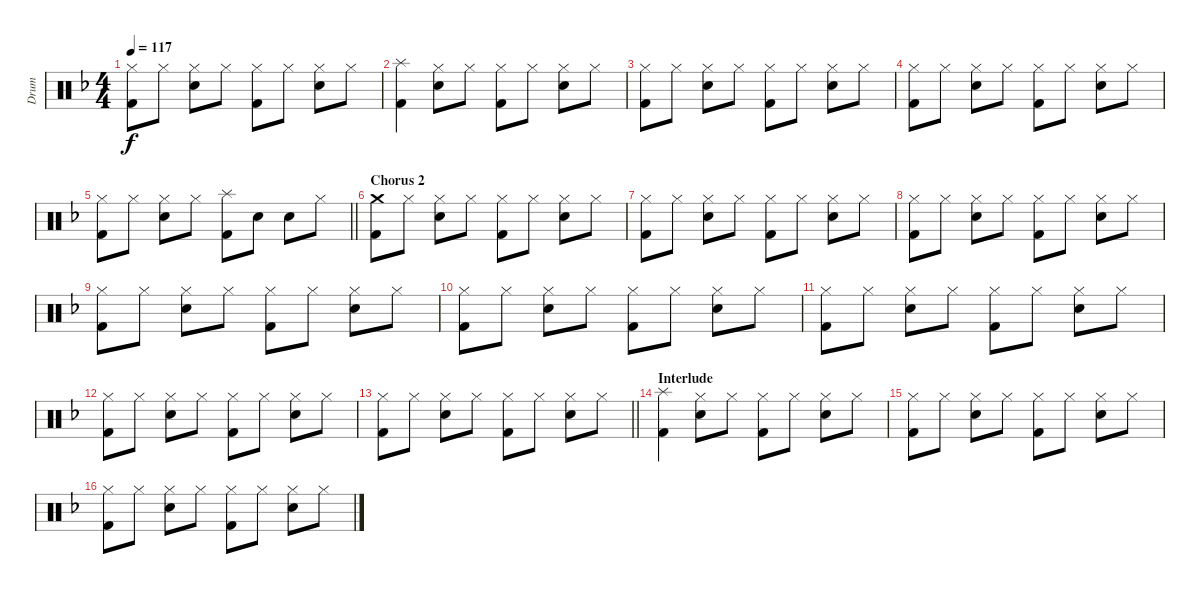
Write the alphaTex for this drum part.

\track ("Drum" "Drum") {instrument percussion}
\staff {score}
\articulation defaults
\ts (4 4)
\tempo 117
\clef neutral
\ks f
("Kick (hit) 2" "Hi-Hat (closed)").8{dy f} "Hi-Hat (closed)".8 ("Snare (hit) 2" "Hi-Hat (closed)").8 "Hi-Hat (closed)".8 ("Kick (hit) 2" "Hi-Hat (closed)").8 "Hi-Hat (closed)".8 ("Snare (hit) 2" "Hi-Hat (closed)").8 "Hi-Hat (closed)".8 |
("Kick (hit) 2" "Splash (hit)").4 ("Snare (hit) 2" "Hi-Hat (closed)").8 "Hi-Hat (closed)".8 ("Kick (hit) 2" "Hi-Hat (closed)").8 "Hi-Hat (closed)".8 ("Snare (hit) 2" "Hi-Hat (closed)").8 "Hi-Hat (closed)".8 |
("Kick (hit) 2" "Hi-Hat (closed)").8 "Hi-Hat (closed)".8 ("Snare (hit) 2" "Hi-Hat (closed)").8 "Hi-Hat (closed)".8 ("Kick (hit) 2" "Hi-Hat (closed)").8 "Hi-Hat (closed)".8 ("Snare (hit) 2" "Hi-Hat (closed)").8 "Hi-Hat (closed)".8 |
("Kick (hit) 2" "Hi-Hat (closed)").8 "Hi-Hat (closed)".8 ("Snare (hit) 2" "Hi-Hat (closed)").8 "Hi-Hat (closed)".8 ("Kick (hit) 2" "Hi-Hat (closed)").8 "Hi-Hat (closed)".8 ("Snare (hit) 2" "Hi-Hat (closed)").8 "Hi-Hat (closed)".8 |
\barLineRight lightlight
("Kick (hit) 2" "Hi-Hat (closed)").8 "Hi-Hat (closed)".8 ("Snare (hit) 2" "Hi-Hat (closed)").8 "Hi-Hat (closed)".8 ("Kick (hit) 2" "Splash (hit)").8 "Snare (hit) 2".8 "Snare (hit) 2".8 "Hi-Hat (closed)".8 |
\section ("" "Chorus 2")
("Kick (hit) 2" "Crash medium (hit)").8 "Hi-Hat (closed)".8 ("Snare (hit) 2" "Hi-Hat (closed)").8 "Hi-Hat (closed)".8 ("Kick (hit) 2" "Hi-Hat (closed)").8 "Hi-Hat (closed)".8 ("Snare (hit) 2" "Hi-Hat (closed)").8 "Hi-Hat (closed)".8 |
("Kick (hit) 2" "Hi-Hat (closed)").8 "Hi-Hat (closed)".8 ("Snare (hit) 2" "Hi-Hat (closed)").8 "Hi-Hat (closed)".8 ("Kick (hit) 2" "Hi-Hat (closed)").8 "Hi-Hat (closed)".8 ("Snare (hit) 2" "Hi-Hat (closed)").8 "Hi-Hat (closed)".8 |
("Kick (hit) 2" "Hi-Hat (closed)").8 "Hi-Hat (closed)".8 ("Snare (hit) 2" "Hi-Hat (closed)").8 "Hi-Hat (closed)".8 ("Kick (hit) 2" "Hi-Hat (closed)").8 "Hi-Hat (closed)".8 ("Snare (hit) 2" "Hi-Hat (closed)").8 "Hi-Hat (closed)".8 |
("Kick (hit) 2" "Hi-Hat (closed)").8 "Hi-Hat (closed)".8 ("Snare (hit) 2" "Hi-Hat (closed)").8 "Hi-Hat (closed)".8 ("Kick (hit) 2" "Hi-Hat (closed)").8 "Hi-Hat (closed)".8 ("Snare (hit) 2" "Hi-Hat (closed)").8 "Hi-Hat (closed)".8 |
("Kick (hit) 2" "Hi-Hat (closed)").8 "Hi-Hat (closed)".8 ("Snare (hit) 2" "Hi-Hat (closed)").8 "Hi-Hat (closed)".8 ("Kick (hit) 2" "Hi-Hat (closed)").8 "Hi-Hat (closed)".8 ("Snare (hit) 2" "Hi-Hat (closed)").8 "Hi-Hat (closed)".8 |
("Kick (hit) 2" "Hi-Hat (closed)").8 "Hi-Hat (closed)".8 ("Snare (hit) 2" "Hi-Hat (closed)").8 "Hi-Hat (closed)".8 ("Kick (hit) 2" "Hi-Hat (closed)").8 "Hi-Hat (closed)".8 ("Snare (hit) 2" "Hi-Hat (closed)").8 "Hi-Hat (closed)".8 |
("Kick (hit) 2" "Hi-Hat (closed)").8 "Hi-Hat (closed)".8 ("Snare (hit) 2" "Hi-Hat (closed)").8 "Hi-Hat (closed)".8 ("Kick (hit) 2" "Hi-Hat (closed)").8 "Hi-Hat (closed)".8 ("Snare (hit) 2" "Hi-Hat (closed)").8 "Hi-Hat (closed)".8 |
\barLineRight lightlight
("Kick (hit) 2" "Hi-Hat (closed)").8 "Hi-Hat (closed)".8 ("Snare (hit) 2" "Hi-Hat (closed)").8 "Hi-Hat (closed)".8 ("Kick (hit) 2" "Hi-Hat (closed)").8 "Hi-Hat (closed)".8 ("Snare (hit) 2" "Hi-Hat (closed)").8 "Hi-Hat (closed)".8 |
\section ("" "Interlude")
("Kick (hit) 2" "Splash (hit)").4 ("Snare (hit) 2" "Hi-Hat (closed)").8 "Hi-Hat (closed)".8 ("Kick (hit) 2" "Hi-Hat (closed)").8 "Hi-Hat (closed)".8 ("Snare (hit) 2" "Hi-Hat (closed)").8 "Hi-Hat (closed)".8 |
("Kick (hit) 2" "Hi-Hat (closed)").8 "Hi-Hat (closed)".8 ("Snare (hit) 2" "Hi-Hat (closed)").8 "Hi-Hat (closed)".8 ("Kick (hit) 2" "Hi-Hat (closed)").8 "Hi-Hat (closed)".8 ("Snare (hit) 2" "Hi-Hat (closed)").8 "Hi-Hat (closed)".8 |
("Kick (hit) 2" "Hi-Hat (closed)").8 "Hi-Hat (closed)".8 ("Snare (hit) 2" "Hi-Hat (closed)").8 "Hi-Hat (closed)".8 ("Kick (hit) 2" "Hi-Hat (closed)").8 "Hi-Hat (closed)".8 ("Snare (hit) 2" "Hi-Hat (closed)").8 "Hi-Hat (closed)".8
